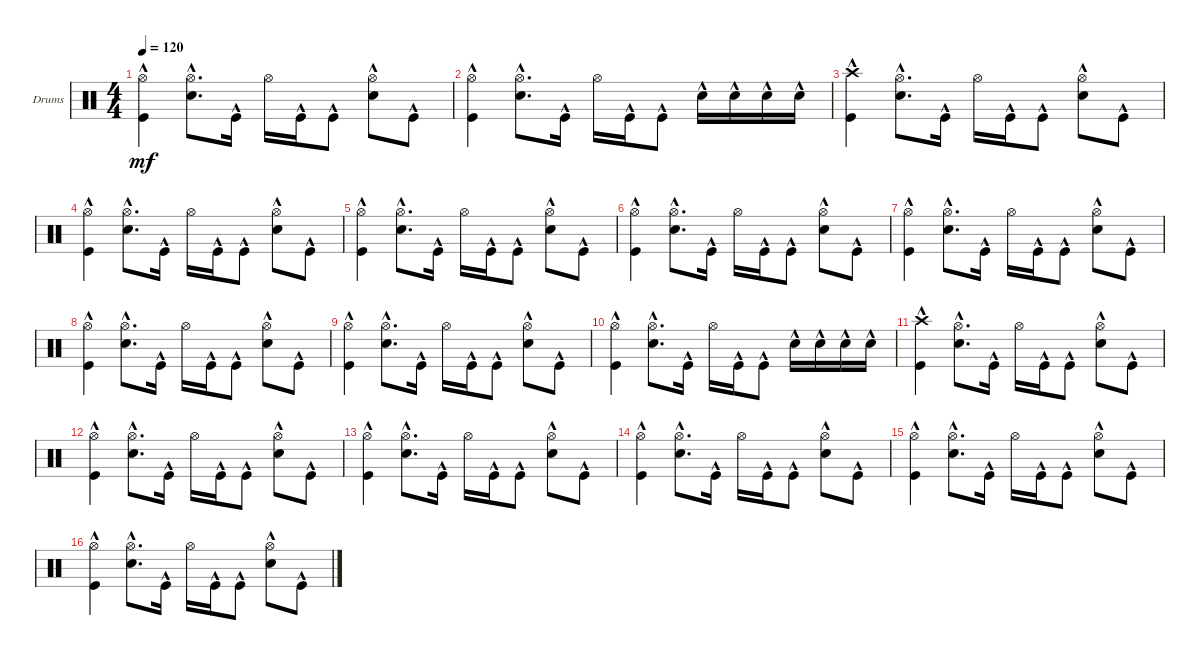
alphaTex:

\defaultSystemsLayout 4
\bracketExtendMode groupsimilarinstruments
\firstSystemTrackNameOrientation horizontal
\otherSystemsTrackNameOrientation horizontal
\track ("Drumkit" "Drums") {instrument percussion}
\staff {score}
\articulation defaults
\ts (4 4)
\tempo 120
\clef neutral
\ks c
("Kick (hit)"{hac} "Hi-Hat (open)").4{dy mf} ("Snare (hit) 2"{hac} "Hi-Hat (open)").8{d} "Kick (hit)"{hac}.16 "Hi-Hat (open)".16 "Kick (hit)"{hac}.16 "Kick (hit)"{hac}.8 ("Snare (hit) 2"{hac} "Hi-Hat (open)").8 "Kick (hit)"{hac}.8 |
("Kick (hit)"{hac} "Hi-Hat (open)").4 ("Snare (hit) 2"{hac} "Hi-Hat (open)").8{d} "Kick (hit)"{hac}.16 "Hi-Hat (open)".16 "Kick (hit)"{hac}.16 "Kick (hit)"{hac}.8 "Snare (hit) 2"{hac}.16 "Snare (hit) 2"{hac}.16 "Snare (hit) 2"{hac}.16 "Snare (hit) 2"{hac}.16 |
("Kick (hit)"{hac} "Crash high (hit)"{hac}).4 ("Snare (hit) 2"{hac} "Hi-Hat (open)").8{d} "Kick (hit)"{hac}.16 "Hi-Hat (open)".16 "Kick (hit)"{hac}.16 "Kick (hit)"{hac}.8 ("Snare (hit) 2"{hac} "Hi-Hat (open)").8 "Kick (hit)"{hac}.8 |
("Kick (hit)"{hac} "Hi-Hat (open)").4 ("Snare (hit) 2"{hac} "Hi-Hat (open)").8{d} "Kick (hit)"{hac}.16 "Hi-Hat (open)".16 "Kick (hit)"{hac}.16 "Kick (hit)"{hac}.8 ("Snare (hit) 2"{hac} "Hi-Hat (open)").8 "Kick (hit)"{hac}.8 |
("Kick (hit)"{hac} "Hi-Hat (open)").4 ("Snare (hit) 2"{hac} "Hi-Hat (open)").8{d} "Kick (hit)"{hac}.16 "Hi-Hat (open)".16 "Kick (hit)"{hac}.16 "Kick (hit)"{hac}.8 ("Snare (hit) 2"{hac} "Hi-Hat (open)").8 "Kick (hit)"{hac}.8 |
("Kick (hit)"{hac} "Hi-Hat (open)").4 ("Snare (hit) 2"{hac} "Hi-Hat (open)").8{d} "Kick (hit)"{hac}.16 "Hi-Hat (open)".16 "Kick (hit)"{hac}.16 "Kick (hit)"{hac}.8 ("Snare (hit) 2"{hac} "Hi-Hat (open)").8 "Kick (hit)"{hac}.8 |
("Kick (hit)"{hac} "Hi-Hat (open)").4 ("Snare (hit) 2"{hac} "Hi-Hat (open)").8{d} "Kick (hit)"{hac}.16 "Hi-Hat (open)".16 "Kick (hit)"{hac}.16 "Kick (hit)"{hac}.8 ("Snare (hit) 2"{hac} "Hi-Hat (open)").8 "Kick (hit)"{hac}.8 |
("Kick (hit)"{hac} "Hi-Hat (open)").4 ("Snare (hit) 2"{hac} "Hi-Hat (open)").8{d} "Kick (hit)"{hac}.16 "Hi-Hat (open)".16 "Kick (hit)"{hac}.16 "Kick (hit)"{hac}.8 ("Snare (hit) 2"{hac} "Hi-Hat (open)").8 "Kick (hit)"{hac}.8 |
("Kick (hit)"{hac} "Hi-Hat (open)").4 ("Snare (hit) 2"{hac} "Hi-Hat (open)").8{d} "Kick (hit)"{hac}.16 "Hi-Hat (open)".16 "Kick (hit)"{hac}.16 "Kick (hit)"{hac}.8 ("Snare (hit) 2"{hac} "Hi-Hat (open)").8 "Kick (hit)"{hac}.8 |
("Kick (hit)"{hac} "Hi-Hat (open)").4 ("Snare (hit) 2"{hac} "Hi-Hat (open)").8{d} "Kick (hit)"{hac}.16 "Hi-Hat (open)".16 "Kick (hit)"{hac}.16 "Kick (hit)"{hac}.8 "Snare (hit) 2"{hac}.16 "Snare (hit) 2"{hac}.16 "Snare (hit) 2"{hac}.16 "Snare (hit) 2"{hac}.16 |
("Kick (hit)"{hac} "Crash high (hit)"{hac}).4 ("Snare (hit) 2"{hac} "Hi-Hat (open)").8{d} "Kick (hit)"{hac}.16 "Hi-Hat (open)".16 "Kick (hit)"{hac}.16 "Kick (hit)"{hac}.8 ("Snare (hit) 2"{hac} "Hi-Hat (open)").8 "Kick (hit)"{hac}.8 |
("Kick (hit)"{hac} "Hi-Hat (open)").4 ("Snare (hit) 2"{hac} "Hi-Hat (open)").8{d} "Kick (hit)"{hac}.16 "Hi-Hat (open)".16 "Kick (hit)"{hac}.16 "Kick (hit)"{hac}.8 ("Snare (hit) 2"{hac} "Hi-Hat (open)").8 "Kick (hit)"{hac}.8 |
("Kick (hit)"{hac} "Hi-Hat (open)").4 ("Snare (hit) 2"{hac} "Hi-Hat (open)").8{d} "Kick (hit)"{hac}.16 "Hi-Hat (open)".16 "Kick (hit)"{hac}.16 "Kick (hit)"{hac}.8 ("Snare (hit) 2"{hac} "Hi-Hat (open)").8 "Kick (hit)"{hac}.8 |
("Kick (hit)"{hac} "Hi-Hat (open)").4 ("Snare (hit) 2"{hac} "Hi-Hat (open)").8{d} "Kick (hit)"{hac}.16 "Hi-Hat (open)".16 "Kick (hit)"{hac}.16 "Kick (hit)"{hac}.8 ("Snare (hit) 2"{hac} "Hi-Hat (open)").8 "Kick (hit)"{hac}.8 |
("Kick (hit)"{hac} "Hi-Hat (open)").4 ("Snare (hit) 2"{hac} "Hi-Hat (open)").8{d} "Kick (hit)"{hac}.16 "Hi-Hat (open)".16 "Kick (hit)"{hac}.16 "Kick (hit)"{hac}.8 ("Snare (hit) 2"{hac} "Hi-Hat (open)").8 "Kick (hit)"{hac}.8 |
("Kick (hit)"{hac} "Hi-Hat (open)").4 ("Snare (hit) 2"{hac} "Hi-Hat (open)").8{d} "Kick (hit)"{hac}.16 "Hi-Hat (open)".16 "Kick (hit)"{hac}.16 "Kick (hit)"{hac}.8 ("Snare (hit) 2"{hac} "Hi-Hat (open)").8 "Kick (hit)"{hac}.8
